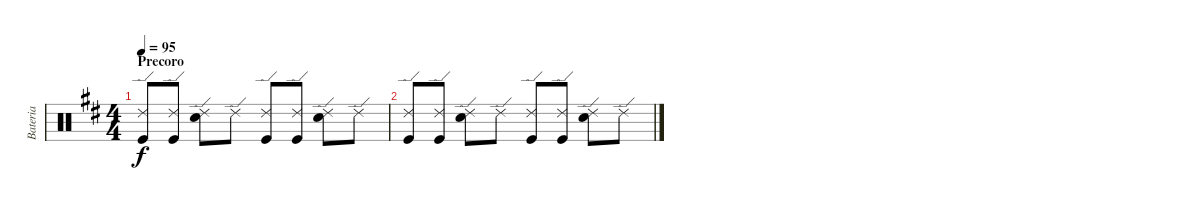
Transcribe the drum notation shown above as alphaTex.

\track ("Bateria" "Bateria") {instrument percussion}
\staff {score}
\articulation defaults
\ts (4 4)
\section ("" "Precoro")
\tempo 95
\clef neutral
\ks d
("Ride (edge) 2" "Kick (hit)").8{dy f} ("Ride (edge) 2" "Kick (hit)").8 ("Ride (edge) 2" "Snare (hit) 2").8 "Ride (edge) 2".8 ("Ride (edge) 2" "Kick (hit)").8 ("Ride (edge) 2" "Kick (hit)").8 ("Ride (edge) 2" "Snare (hit) 2").8 "Ride (edge) 2".8 |
("Ride (edge) 2" "Kick (hit)").8 ("Ride (edge) 2" "Kick (hit)").8 ("Ride (edge) 2" "Snare (hit) 2").8 "Ride (edge) 2".8 ("Ride (edge) 2" "Kick (hit)").8 ("Ride (edge) 2" "Kick (hit)").8 ("Ride (edge) 2" "Snare (hit) 2").8 "Ride (edge) 2".8
